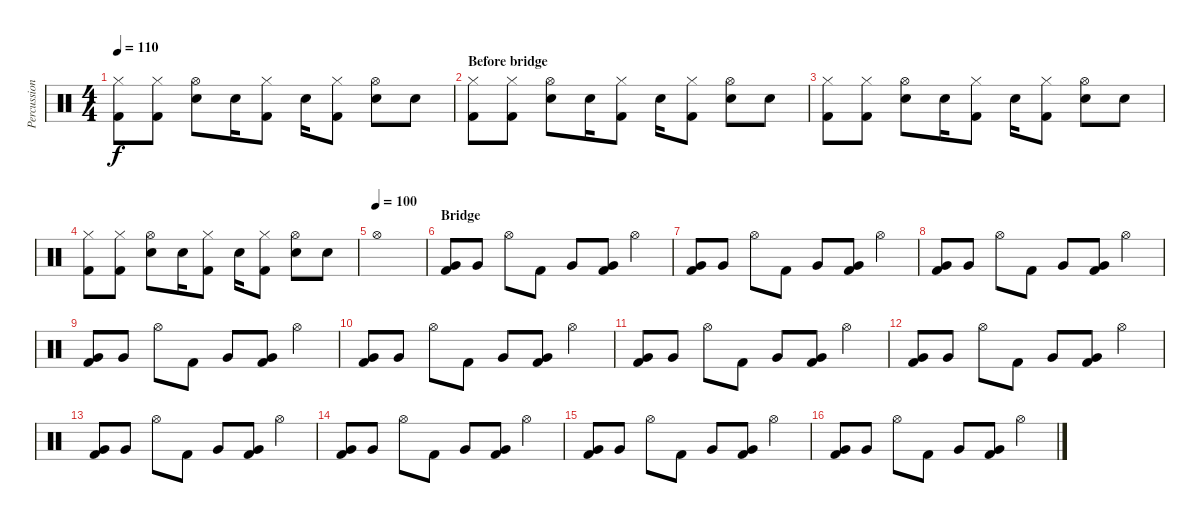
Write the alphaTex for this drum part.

\track ("Percussion" "Percussion") {instrument percussion}
\staff {score}
\articulation defaults
\ts (4 4)
\tempo 110
\clef neutral
\ks c
("Hi-Hat (closed)" "Kick (hit) 2").8{dy f} ("Hi-Hat (closed)" "Kick (hit) 2").8 ("Hi-Hat (open)" "Electric Snare (hit)").8 "Electric Snare (hit)".16 ("Hi-Hat (closed)" "Kick (hit) 2").8 "Electric Snare (hit)".16 ("Hi-Hat (closed)" "Kick (hit) 2").8 ("Hi-Hat (open)" "Electric Snare (hit)").8 "Electric Snare (hit)".8 |
\section ("" "Before bridge")
("Hi-Hat (closed)" "Kick (hit) 2").8 ("Hi-Hat (closed)" "Kick (hit) 2").8 ("Hi-Hat (open)" "Electric Snare (hit)").8 "Electric Snare (hit)".16 ("Hi-Hat (closed)" "Kick (hit) 2").8 "Electric Snare (hit)".16 ("Hi-Hat (closed)" "Kick (hit) 2").8 ("Hi-Hat (open)" "Electric Snare (hit)").8 "Electric Snare (hit)".8 |
("Hi-Hat (closed)" "Kick (hit) 2").8 ("Hi-Hat (closed)" "Kick (hit) 2").8 ("Hi-Hat (open)" "Electric Snare (hit)").8 "Electric Snare (hit)".16 ("Hi-Hat (closed)" "Kick (hit) 2").8 "Electric Snare (hit)".16 ("Hi-Hat (closed)" "Kick (hit) 2").8 ("Hi-Hat (open)" "Electric Snare (hit)").8 "Electric Snare (hit)".8 |
("Hi-Hat (closed)" "Kick (hit) 2").8 ("Hi-Hat (closed)" "Kick (hit) 2").8 ("Hi-Hat (open)" "Electric Snare (hit)").8 "Electric Snare (hit)".16 ("Hi-Hat (closed)" "Kick (hit) 2").8 "Electric Snare (hit)".16 ("Hi-Hat (closed)" "Kick (hit) 2").8 ("Hi-Hat (open)" "Electric Snare (hit)").8 "Electric Snare (hit)".8 |
\tempo (100)
"Hi-Hat (open)".1 |
\section ("" "Bridge")
("Very Low Tom (hit)" "Kick (hit) 2").8 "Very Low Tom (hit)".8 "Hi-Hat (open)".8 "Kick (hit) 2".8 "Very Low Tom (hit)".8 ("Very Low Tom (hit)" "Kick (hit) 2").8 "Hi-Hat (open)".4 |
("Very Low Tom (hit)" "Kick (hit) 2").8 "Very Low Tom (hit)".8 "Hi-Hat (open)".8 "Kick (hit) 2".8 "Very Low Tom (hit)".8 ("Very Low Tom (hit)" "Kick (hit) 2").8 "Hi-Hat (open)".4 |
("Very Low Tom (hit)" "Kick (hit) 2").8 "Very Low Tom (hit)".8 "Hi-Hat (open)".8 "Kick (hit) 2".8 "Very Low Tom (hit)".8 ("Very Low Tom (hit)" "Kick (hit) 2").8 "Hi-Hat (open)".4 |
("Very Low Tom (hit)" "Kick (hit) 2").8 "Very Low Tom (hit)".8 "Hi-Hat (open)".8 "Kick (hit) 2".8 "Very Low Tom (hit)".8 ("Very Low Tom (hit)" "Kick (hit) 2").8 "Hi-Hat (open)".4 |
("Very Low Tom (hit)" "Kick (hit) 2").8 "Very Low Tom (hit)".8 "Hi-Hat (open)".8 "Kick (hit) 2".8 "Very Low Tom (hit)".8 ("Very Low Tom (hit)" "Kick (hit) 2").8 "Hi-Hat (open)".4 |
("Very Low Tom (hit)" "Kick (hit) 2").8 "Very Low Tom (hit)".8 "Hi-Hat (open)".8 "Kick (hit) 2".8 "Very Low Tom (hit)".8 ("Very Low Tom (hit)" "Kick (hit) 2").8 "Hi-Hat (open)".4 |
("Very Low Tom (hit)" "Kick (hit) 2").8 "Very Low Tom (hit)".8 "Hi-Hat (open)".8 "Kick (hit) 2".8 "Very Low Tom (hit)".8 ("Very Low Tom (hit)" "Kick (hit) 2").8 "Hi-Hat (open)".4 |
("Very Low Tom (hit)" "Kick (hit) 2").8 "Very Low Tom (hit)".8 "Hi-Hat (open)".8 "Kick (hit) 2".8 "Very Low Tom (hit)".8 ("Very Low Tom (hit)" "Kick (hit) 2").8 "Hi-Hat (open)".4 |
("Very Low Tom (hit)" "Kick (hit) 2").8 "Very Low Tom (hit)".8 "Hi-Hat (open)".8 "Kick (hit) 2".8 "Very Low Tom (hit)".8 ("Very Low Tom (hit)" "Kick (hit) 2").8 "Hi-Hat (open)".4 |
("Very Low Tom (hit)" "Kick (hit) 2").8 "Very Low Tom (hit)".8 "Hi-Hat (open)".8 "Kick (hit) 2".8 "Very Low Tom (hit)".8 ("Very Low Tom (hit)" "Kick (hit) 2").8 "Hi-Hat (open)".4 |
("Very Low Tom (hit)" "Kick (hit) 2").8 "Very Low Tom (hit)".8 "Hi-Hat (open)".8 "Kick (hit) 2".8 "Very Low Tom (hit)".8 ("Very Low Tom (hit)" "Kick (hit) 2").8 "Hi-Hat (open)".4
